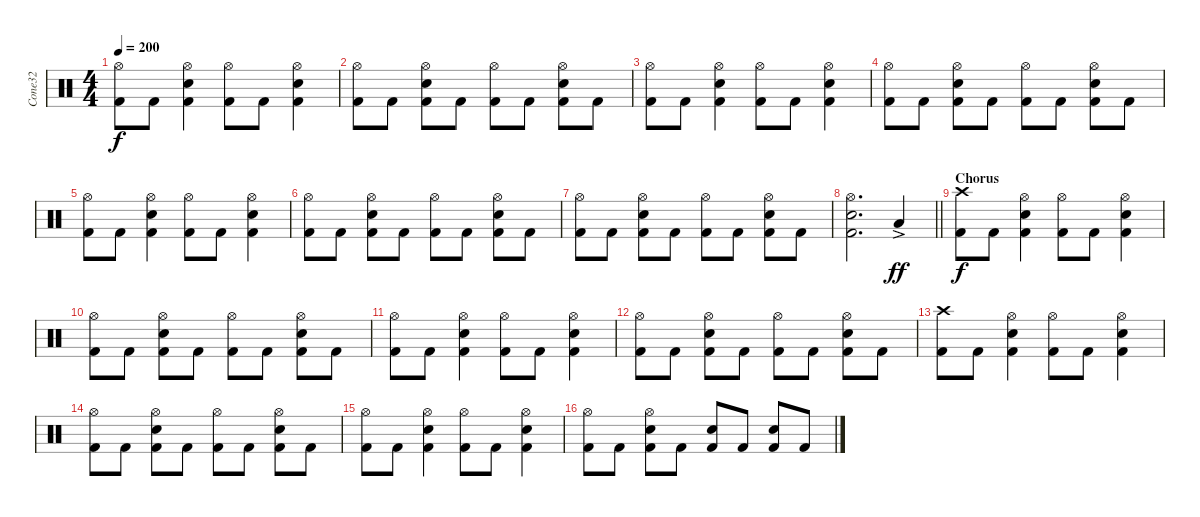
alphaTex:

\track ("Cone32" "Cone32") {instrument percussion}
\staff {score}
\articulation defaults
\ts (4 4)
\tempo 200
\clef neutral
\ks c
("Hi-Hat (open)" "Kick (hit) 2").8{dy f} "Kick (hit) 2".8 ("Hi-Hat (open)" "Snare (hit) 2" "Kick (hit) 2").4 ("Hi-Hat (open)" "Kick (hit) 2").8 "Kick (hit) 2".8 ("Hi-Hat (open)" "Snare (hit) 2" "Kick (hit) 2").4 |
("Hi-Hat (open)" "Kick (hit) 2").8 "Kick (hit) 2".8 ("Hi-Hat (open)" "Snare (hit) 2" "Kick (hit) 2").8 "Kick (hit) 2".8 ("Hi-Hat (open)" "Kick (hit) 2").8 "Kick (hit) 2".8 ("Hi-Hat (open)" "Snare (hit) 2" "Kick (hit) 2").8 "Kick (hit) 2".8 |
("Hi-Hat (open)" "Kick (hit) 2").8 "Kick (hit) 2".8 ("Hi-Hat (open)" "Snare (hit) 2" "Kick (hit) 2").4 ("Hi-Hat (open)" "Kick (hit) 2").8 "Kick (hit) 2".8 ("Hi-Hat (open)" "Snare (hit) 2" "Kick (hit) 2").4 |
("Hi-Hat (open)" "Kick (hit) 2").8 "Kick (hit) 2".8 ("Hi-Hat (open)" "Snare (hit) 2" "Kick (hit) 2").8 "Kick (hit) 2".8 ("Hi-Hat (open)" "Kick (hit) 2").8 "Kick (hit) 2".8 ("Hi-Hat (open)" "Snare (hit) 2" "Kick (hit) 2").8 "Kick (hit) 2".8 |
("Hi-Hat (open)" "Kick (hit) 2").8 "Kick (hit) 2".8 ("Hi-Hat (open)" "Snare (hit) 2" "Kick (hit) 2").4 ("Hi-Hat (open)" "Kick (hit) 2").8 "Kick (hit) 2".8 ("Hi-Hat (open)" "Snare (hit) 2" "Kick (hit) 2").4 |
("Hi-Hat (open)" "Kick (hit) 2").8 "Kick (hit) 2".8 ("Hi-Hat (open)" "Snare (hit) 2" "Kick (hit) 2").8 "Kick (hit) 2".8 ("Hi-Hat (open)" "Kick (hit) 2").8 "Kick (hit) 2".8 ("Hi-Hat (open)" "Snare (hit) 2" "Kick (hit) 2").8 "Kick (hit) 2".8 |
("Hi-Hat (open)" "Kick (hit) 2").8 "Kick (hit) 2".8 ("Hi-Hat (open)" "Snare (hit) 2" "Kick (hit) 2").8 "Kick (hit) 2".8 ("Hi-Hat (open)" "Kick (hit) 2").8 "Kick (hit) 2".8 ("Hi-Hat (open)" "Snare (hit) 2" "Kick (hit) 2").8 "Kick (hit) 2".8 |
\barLineRight lightlight
("Hi-Hat (open)" "Snare (hit) 2" "Kick (hit) 2").2{d} "Low Floor Tom (hit)"{ac}.4{dy ff} |
\section ("" "Chorus")
("Crash high (hit)" "Kick (hit) 2").8{dy f} "Kick (hit) 2".8 ("Hi-Hat (open)" "Snare (hit) 2" "Kick (hit) 2").4 ("Hi-Hat (open)" "Kick (hit) 2").8 "Kick (hit) 2".8 ("Hi-Hat (open)" "Snare (hit) 2" "Kick (hit) 2").4 |
("Hi-Hat (open)" "Kick (hit) 2").8 "Kick (hit) 2".8 ("Hi-Hat (open)" "Snare (hit) 2" "Kick (hit) 2").8 "Kick (hit) 2".8 ("Hi-Hat (open)" "Kick (hit) 2").8 "Kick (hit) 2".8 ("Hi-Hat (open)" "Snare (hit) 2" "Kick (hit) 2").8 "Kick (hit) 2".8 |
("Hi-Hat (open)" "Kick (hit) 2").8 "Kick (hit) 2".8 ("Hi-Hat (open)" "Snare (hit) 2" "Kick (hit) 2").4 ("Hi-Hat (open)" "Kick (hit) 2").8 "Kick (hit) 2".8 ("Hi-Hat (open)" "Snare (hit) 2" "Kick (hit) 2").4 |
("Hi-Hat (open)" "Kick (hit) 2").8 "Kick (hit) 2".8 ("Hi-Hat (open)" "Snare (hit) 2" "Kick (hit) 2").8 "Kick (hit) 2".8 ("Hi-Hat (open)" "Kick (hit) 2").8 "Kick (hit) 2".8 ("Hi-Hat (open)" "Snare (hit) 2" "Kick (hit) 2").8 "Kick (hit) 2".8 |
("Crash high (hit)" "Kick (hit) 2").8 "Kick (hit) 2".8 ("Hi-Hat (open)" "Snare (hit) 2" "Kick (hit) 2").4 ("Hi-Hat (open)" "Kick (hit) 2").8 "Kick (hit) 2".8 ("Hi-Hat (open)" "Snare (hit) 2" "Kick (hit) 2").4 |
("Hi-Hat (open)" "Kick (hit) 2").8 "Kick (hit) 2".8 ("Hi-Hat (open)" "Snare (hit) 2" "Kick (hit) 2").8 "Kick (hit) 2".8 ("Hi-Hat (open)" "Kick (hit) 2").8 "Kick (hit) 2".8 ("Hi-Hat (open)" "Snare (hit) 2" "Kick (hit) 2").8 "Kick (hit) 2".8 |
("Hi-Hat (open)" "Kick (hit) 2").8 "Kick (hit) 2".8 ("Hi-Hat (open)" "Snare (hit) 2" "Kick (hit) 2").4 ("Hi-Hat (open)" "Kick (hit) 2").8 "Kick (hit) 2".8 ("Hi-Hat (open)" "Snare (hit) 2" "Kick (hit) 2").4 |
("Hi-Hat (open)" "Kick (hit) 2").8 "Kick (hit) 2".8 ("Hi-Hat (open)" "Snare (hit) 2" "Kick (hit) 2").8 "Kick (hit) 2".8 ("Snare (hit) 2" "Kick (hit) 2").8 "Kick (hit) 2".8 ("Snare (hit) 2" "Kick (hit) 2").8 "Kick (hit) 2".8
